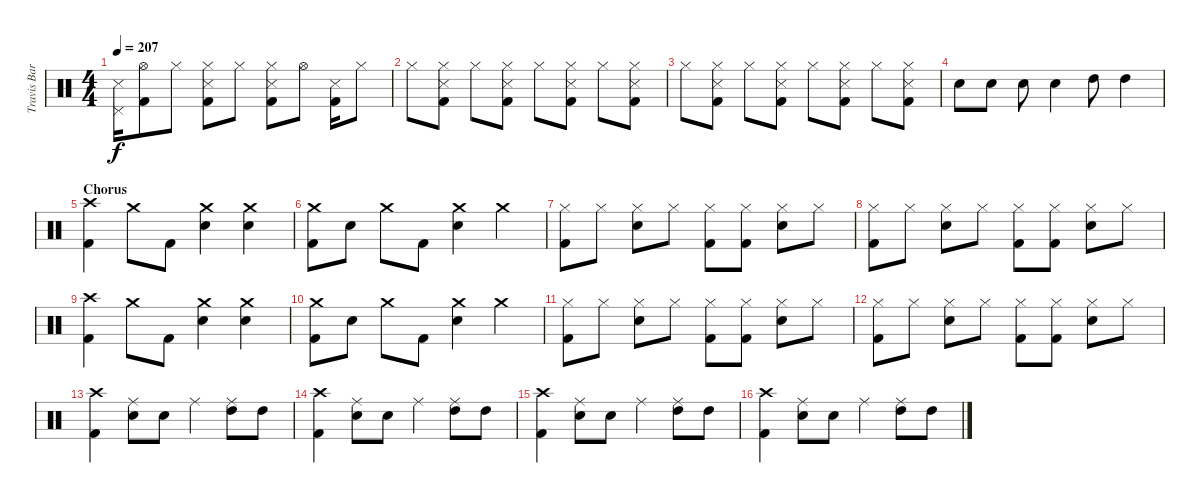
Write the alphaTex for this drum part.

\track ("Travis Barker" "Travis Bar") {instrument percussion}
\staff {score}
\articulation defaults
\ts (4 4)
\tempo 207
\clef neutral
\ks c
("Snare (side stick) 3" "Pedal Hi-Hat (hit)").16{dy f} ("Hi-Hat (open)" "Kick (hit) 2").8 "Hi-Hat (closed)".8 ("Hi-Hat (closed)" "Snare (side stick) 3" "Kick (hit) 2").8 "Hi-Hat (closed)".8 ("Hi-Hat (closed)" "Snare (side stick) 3" "Kick (hit) 2").8 "Hi-Hat (open)".8 ("Snare (side stick) 3" "Kick (hit) 2").16 "Hi-Hat (closed)".8 |
"Hi-Hat (closed)".8 ("Hi-Hat (closed)" "Snare (side stick) 3" "Kick (hit) 2").8 "Hi-Hat (closed)".8 ("Hi-Hat (closed)" "Snare (side stick) 3" "Kick (hit) 2").8 "Hi-Hat (closed)".8 ("Hi-Hat (closed)" "Snare (side stick) 3" "Kick (hit) 2").8 "Hi-Hat (closed)".8 ("Hi-Hat (closed)" "Snare (side stick) 3" "Kick (hit) 2").8 |
"Hi-Hat (closed)".8 ("Hi-Hat (closed)" "Snare (side stick) 3" "Kick (hit) 2").8 "Hi-Hat (closed)".8 ("Hi-Hat (closed)" "Snare (side stick) 3" "Kick (hit) 2").8 "Hi-Hat (closed)".8 ("Hi-Hat (closed)" "Snare (side stick) 3" "Kick (hit) 2").8 "Hi-Hat (closed)".8 ("Hi-Hat (closed)" "Snare (side stick) 3" "Kick (hit) 2").8 |
"Electric Snare (hit)".8 "Electric Snare (hit)".8 "Electric Snare (hit)".8 "Electric Snare (hit)".4 "High Tom (hit)".8 "High Tom (hit)".4 |
\section ("" "Chorus")
("Crash high (hit)" "Kick (hit) 2").4 "Crash medium (hit)".8 "Kick (hit) 2".8 ("Crash medium (hit)" "Electric Snare (hit)").4 ("Crash medium (hit)" "Electric Snare (hit)").4 |
("Crash medium (hit)" "Kick (hit) 2").8 "Electric Snare (hit)".8 "Crash medium (hit)".8 "Kick (hit) 2".8 ("Crash medium (hit)" "Electric Snare (hit)").4 "Crash medium (hit)".4 |
("Hi-Hat (closed)" "Kick (hit) 2").8 "Hi-Hat (closed)".8 ("Hi-Hat (closed)" "Electric Snare (hit)").8 "Hi-Hat (closed)".8 ("Hi-Hat (closed)" "Kick (hit) 2").8 ("Hi-Hat (closed)" "Kick (hit) 2").8 ("Hi-Hat (closed)" "Electric Snare (hit)").8 "Hi-Hat (closed)".8 |
("Hi-Hat (closed)" "Kick (hit) 2").8 "Hi-Hat (closed)".8 ("Hi-Hat (closed)" "Electric Snare (hit)").8 "Hi-Hat (closed)".8 ("Hi-Hat (closed)" "Kick (hit) 2").8 ("Hi-Hat (closed)" "Kick (hit) 2").8 ("Hi-Hat (closed)" "Electric Snare (hit)").8 "Hi-Hat (closed)".8 |
("Crash high (hit)" "Kick (hit) 2").4 "Crash medium (hit)".8 "Kick (hit) 2".8 ("Crash medium (hit)" "Electric Snare (hit)").4 ("Crash medium (hit)" "Electric Snare (hit)").4 |
("Crash medium (hit)" "Kick (hit) 2").8 "Electric Snare (hit)".8 "Crash medium (hit)".8 "Kick (hit) 2".8 ("Crash medium (hit)" "Electric Snare (hit)").4 "Crash medium (hit)".4 |
("Hi-Hat (closed)" "Kick (hit) 2").8 "Hi-Hat (closed)".8 ("Hi-Hat (closed)" "Electric Snare (hit)").8 "Hi-Hat (closed)".8 ("Hi-Hat (closed)" "Kick (hit) 2").8 ("Hi-Hat (closed)" "Kick (hit) 2").8 ("Hi-Hat (closed)" "Electric Snare (hit)").8 "Hi-Hat (closed)".8 |
("Hi-Hat (closed)" "Kick (hit) 2").8 "Hi-Hat (closed)".8 ("Hi-Hat (closed)" "Electric Snare (hit)").8 "Hi-Hat (closed)".8 ("Hi-Hat (closed)" "Kick (hit) 2").8 ("Hi-Hat (closed)" "Kick (hit) 2").8 ("Hi-Hat (closed)" "Electric Snare (hit)").8 "Hi-Hat (closed)".8 |
("Crash high (hit)" "Kick (hit) 2").4 ("Ride (middle)" "Electric Snare (hit)").8 "Electric Snare (hit)".8 "Ride (middle)".4 ("Ride (middle)" "High Tom (hit)").8 "High Tom (hit)".8 |
("Crash high (hit)" "Kick (hit) 2").4 ("Ride (middle)" "Electric Snare (hit)").8 "Electric Snare (hit)".8 "Ride (middle)".4 ("Ride (middle)" "High Tom (hit)").8 "High Tom (hit)".8 |
("Crash high (hit)" "Kick (hit) 2").4 ("Ride (middle)" "Electric Snare (hit)").8 "Electric Snare (hit)".8 "Ride (middle)".4 ("Ride (middle)" "High Tom (hit)").8 "High Tom (hit)".8 |
("Crash high (hit)" "Kick (hit) 2").4 ("Ride (middle)" "Electric Snare (hit)").8 "Electric Snare (hit)".8 "Ride (middle)".4 ("Ride (middle)" "High Tom (hit)").8 "High Tom (hit)".8
